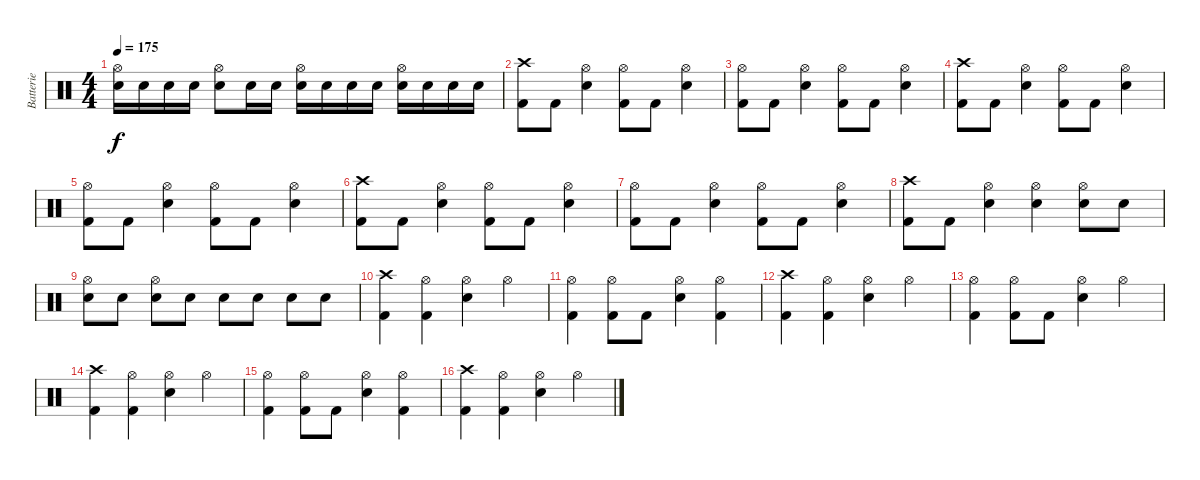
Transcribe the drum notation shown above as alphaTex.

\track ("Batterie" "Batterie") {instrument percussion}
\staff {score}
\articulation defaults
\ts (4 4)
\tempo 175
\clef neutral
\ks c
("Hi-Hat (open)" "Electric Snare (hit)").16{dy f} "Electric Snare (hit)".16 "Electric Snare (hit)".16 "Electric Snare (hit)".16 ("Hi-Hat (open)" "Electric Snare (hit)").8 "Electric Snare (hit)".16 "Electric Snare (hit)".16 ("Hi-Hat (open)" "Electric Snare (hit)").16 "Electric Snare (hit)".16 "Electric Snare (hit)".16 "Electric Snare (hit)".16 ("Hi-Hat (open)" "Electric Snare (hit)").16 "Electric Snare (hit)".16 "Electric Snare (hit)".16 "Electric Snare (hit)".16 |
("Crash high (hit)" "Kick (hit) 2").8 "Kick (hit) 2".8 ("Hi-Hat (open)" "Electric Snare (hit)").4 ("Hi-Hat (open)" "Kick (hit) 2").8 "Kick (hit) 2".8 ("Hi-Hat (open)" "Electric Snare (hit)").4 |
("Hi-Hat (open)" "Kick (hit) 2").8 "Kick (hit) 2".8 ("Hi-Hat (open)" "Electric Snare (hit)").4 ("Hi-Hat (open)" "Kick (hit) 2").8 "Kick (hit) 2".8 ("Hi-Hat (open)" "Electric Snare (hit)").4 |
("Crash high (hit)" "Kick (hit) 2").8 "Kick (hit) 2".8 ("Hi-Hat (open)" "Electric Snare (hit)").4 ("Hi-Hat (open)" "Kick (hit) 2").8 "Kick (hit) 2".8 ("Hi-Hat (open)" "Electric Snare (hit)").4 |
("Hi-Hat (open)" "Kick (hit) 2").8 "Kick (hit) 2".8 ("Hi-Hat (open)" "Electric Snare (hit)").4 ("Hi-Hat (open)" "Kick (hit) 2").8 "Kick (hit) 2".8 ("Hi-Hat (open)" "Electric Snare (hit)").4 |
("Crash high (hit)" "Kick (hit) 2").8 "Kick (hit) 2".8 ("Hi-Hat (open)" "Electric Snare (hit)").4 ("Hi-Hat (open)" "Kick (hit) 2").8 "Kick (hit) 2".8 ("Hi-Hat (open)" "Electric Snare (hit)").4 |
("Hi-Hat (open)" "Kick (hit) 2").8 "Kick (hit) 2".8 ("Hi-Hat (open)" "Electric Snare (hit)").4 ("Hi-Hat (open)" "Kick (hit) 2").8 "Kick (hit) 2".8 ("Hi-Hat (open)" "Electric Snare (hit)").4 |
("Crash high (hit)" "Kick (hit) 2").8 "Kick (hit) 2".8 ("Hi-Hat (open)" "Electric Snare (hit)").4 ("Hi-Hat (open)" "Electric Snare (hit)").4 ("Hi-Hat (open)" "Electric Snare (hit)").8 "Electric Snare (hit)".8 |
("Hi-Hat (open)" "Electric Snare (hit)").8 "Electric Snare (hit)".8 ("Hi-Hat (open)" "Electric Snare (hit)").8 "Electric Snare (hit)".8 "Electric Snare (hit)".8 "Electric Snare (hit)".8 "Electric Snare (hit)".8 "Electric Snare (hit)".8 |
("Crash high (hit)" "Kick (hit) 2").4 ("Hi-Hat (open)" "Kick (hit) 2").4 ("Hi-Hat (open)" "Electric Snare (hit)").4 "Hi-Hat (open)".4 |
("Hi-Hat (open)" "Kick (hit) 2").4 ("Hi-Hat (open)" "Kick (hit) 2").8 "Kick (hit) 2".8 ("Hi-Hat (open)" "Electric Snare (hit)").4 ("Hi-Hat (open)" "Kick (hit) 2").4 |
("Crash high (hit)" "Kick (hit) 2").4 ("Hi-Hat (open)" "Kick (hit) 2").4 ("Hi-Hat (open)" "Electric Snare (hit)").4 "Hi-Hat (open)".4 |
("Hi-Hat (open)" "Kick (hit) 2").4 ("Hi-Hat (open)" "Kick (hit) 2").8 "Kick (hit) 2".8 ("Hi-Hat (open)" "Electric Snare (hit)").4 "Hi-Hat (open)".4 |
("Crash high (hit)" "Kick (hit) 2").4 ("Hi-Hat (open)" "Kick (hit) 2").4 ("Hi-Hat (open)" "Electric Snare (hit)").4 "Hi-Hat (open)".4 |
("Hi-Hat (open)" "Kick (hit) 2").4 ("Hi-Hat (open)" "Kick (hit) 2").8 "Kick (hit) 2".8 ("Hi-Hat (open)" "Electric Snare (hit)").4 ("Hi-Hat (open)" "Kick (hit) 2").4 |
("Crash high (hit)" "Kick (hit) 2").4 ("Hi-Hat (open)" "Kick (hit) 2").4 ("Hi-Hat (open)" "Electric Snare (hit)").4 "Hi-Hat (open)".4
